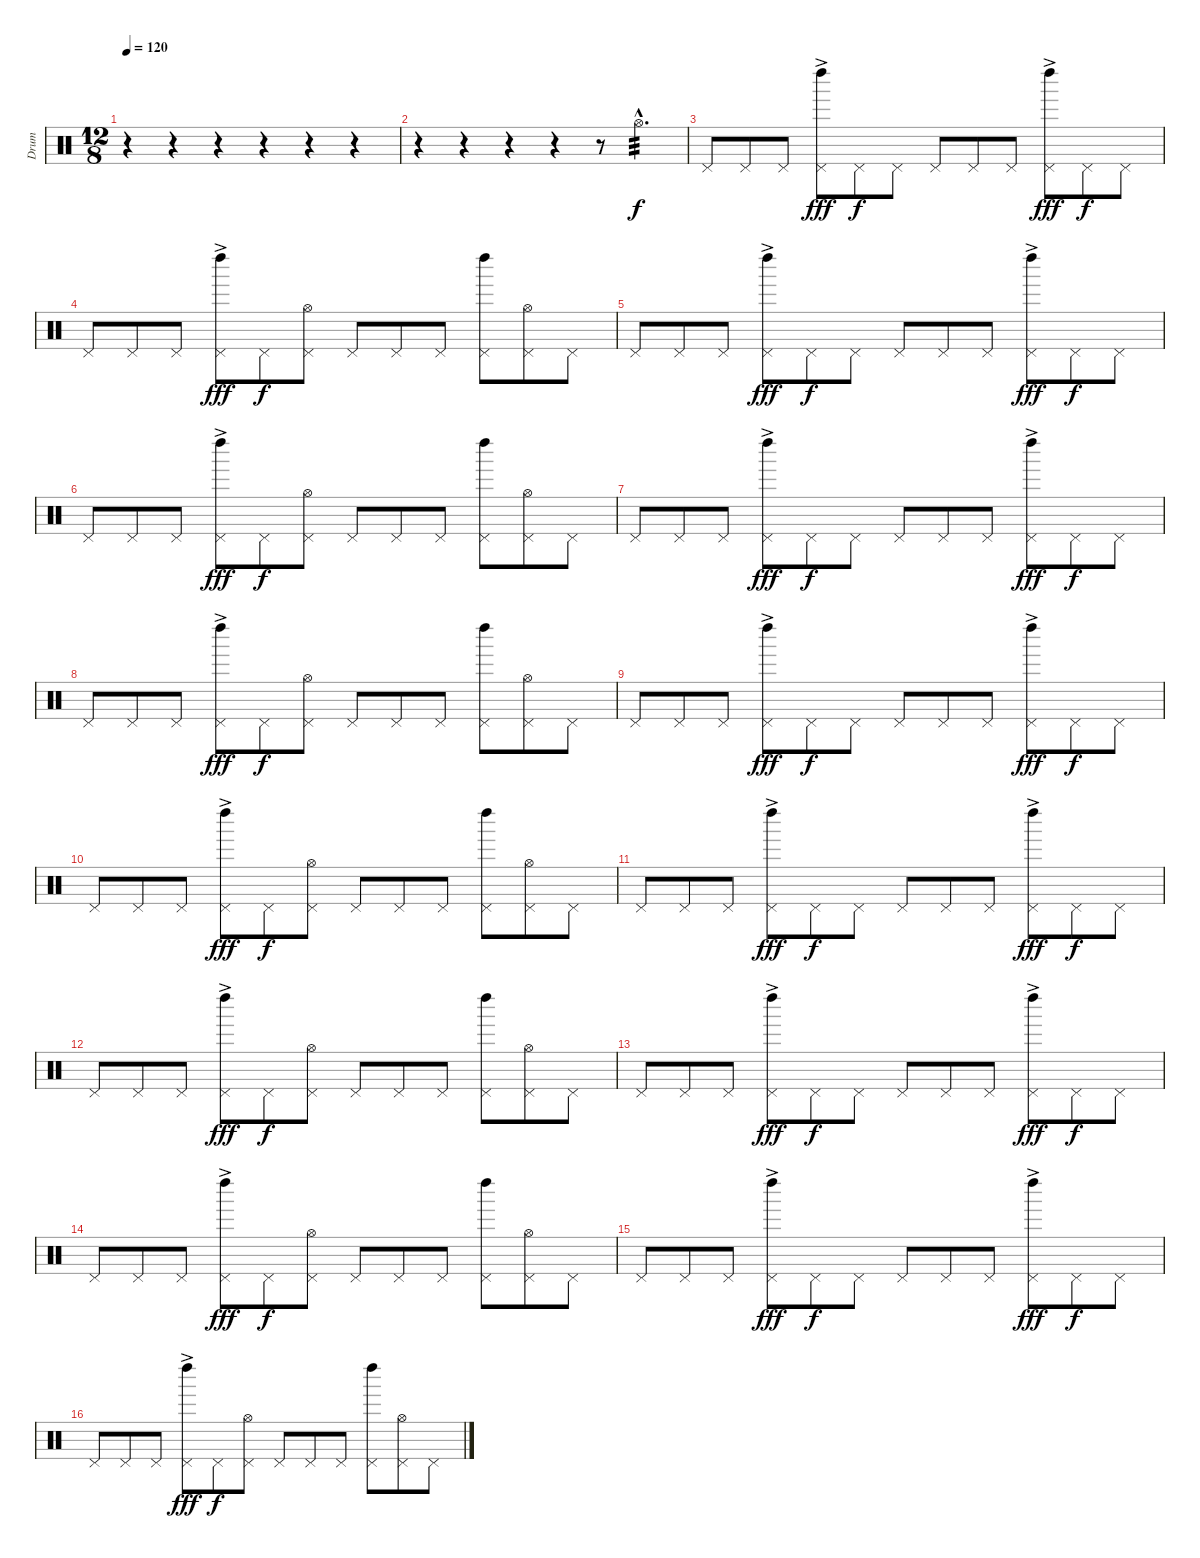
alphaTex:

\track ("Drum" "Drum") {instrument percussion}
\staff {score}
\articulation defaults
\ts (12 8)
\tempo 120
\clef neutral
\ks c
r.4{dy f} r.4 r.4 r.4 r.4 r.4 |
r.4 r.4 r.4 r.4 r.8 "Hi-Hat (open)"{hac}.4{d tp 3} |
"Pedal Hi-Hat (hit)".8 "Pedal Hi-Hat (hit)".8 "Pedal Hi-Hat (hit)".8 ("Pedal Hi-Hat (hit)"{ac} "Left Maraca (hit)"{ac}).8{dy fff} "Pedal Hi-Hat (hit)".8{dy f} "Pedal Hi-Hat (hit)".8 "Pedal Hi-Hat (hit)".8 "Pedal Hi-Hat (hit)".8 "Pedal Hi-Hat (hit)".8 ("Pedal Hi-Hat (hit)"{ac} "Left Maraca (hit)"{ac}).8{dy fff} "Pedal Hi-Hat (hit)".8{dy f} "Pedal Hi-Hat (hit)".8 |
"Pedal Hi-Hat (hit)".8 "Pedal Hi-Hat (hit)".8 "Pedal Hi-Hat (hit)".8 ("Pedal Hi-Hat (hit)"{ac} "Left Maraca (hit)"{ac}).8{dy fff} "Pedal Hi-Hat (hit)".8{dy f} ("Pedal Hi-Hat (hit)" "Hi-Hat (open)").8 "Pedal Hi-Hat (hit)".8 "Pedal Hi-Hat (hit)".8 "Pedal Hi-Hat (hit)".8 ("Pedal Hi-Hat (hit)" "Left Maraca (hit)").8 ("Pedal Hi-Hat (hit)" "Hi-Hat (open)").8 "Pedal Hi-Hat (hit)".8 |
"Pedal Hi-Hat (hit)".8 "Pedal Hi-Hat (hit)".8 "Pedal Hi-Hat (hit)".8 ("Pedal Hi-Hat (hit)"{ac} "Left Maraca (hit)"{ac}).8{dy fff} "Pedal Hi-Hat (hit)".8{dy f} "Pedal Hi-Hat (hit)".8 "Pedal Hi-Hat (hit)".8 "Pedal Hi-Hat (hit)".8 "Pedal Hi-Hat (hit)".8 ("Pedal Hi-Hat (hit)"{ac} "Left Maraca (hit)"{ac}).8{dy fff} "Pedal Hi-Hat (hit)".8{dy f} "Pedal Hi-Hat (hit)".8 |
"Pedal Hi-Hat (hit)".8 "Pedal Hi-Hat (hit)".8 "Pedal Hi-Hat (hit)".8 ("Pedal Hi-Hat (hit)"{ac} "Left Maraca (hit)"{ac}).8{dy fff} "Pedal Hi-Hat (hit)".8{dy f} ("Pedal Hi-Hat (hit)" "Hi-Hat (open)").8 "Pedal Hi-Hat (hit)".8 "Pedal Hi-Hat (hit)".8 "Pedal Hi-Hat (hit)".8 ("Pedal Hi-Hat (hit)" "Left Maraca (hit)").8 ("Pedal Hi-Hat (hit)" "Hi-Hat (open)").8 "Pedal Hi-Hat (hit)".8 |
"Pedal Hi-Hat (hit)".8 "Pedal Hi-Hat (hit)".8 "Pedal Hi-Hat (hit)".8 ("Pedal Hi-Hat (hit)"{ac} "Left Maraca (hit)"{ac}).8{dy fff} "Pedal Hi-Hat (hit)".8{dy f} "Pedal Hi-Hat (hit)".8 "Pedal Hi-Hat (hit)".8 "Pedal Hi-Hat (hit)".8 "Pedal Hi-Hat (hit)".8 ("Pedal Hi-Hat (hit)"{ac} "Left Maraca (hit)"{ac}).8{dy fff} "Pedal Hi-Hat (hit)".8{dy f} "Pedal Hi-Hat (hit)".8 |
"Pedal Hi-Hat (hit)".8 "Pedal Hi-Hat (hit)".8 "Pedal Hi-Hat (hit)".8 ("Pedal Hi-Hat (hit)"{ac} "Left Maraca (hit)"{ac}).8{dy fff} "Pedal Hi-Hat (hit)".8{dy f} ("Pedal Hi-Hat (hit)" "Hi-Hat (open)").8 "Pedal Hi-Hat (hit)".8 "Pedal Hi-Hat (hit)".8 "Pedal Hi-Hat (hit)".8 ("Pedal Hi-Hat (hit)" "Left Maraca (hit)").8 ("Pedal Hi-Hat (hit)" "Hi-Hat (open)").8 "Pedal Hi-Hat (hit)".8 |
"Pedal Hi-Hat (hit)".8 "Pedal Hi-Hat (hit)".8 "Pedal Hi-Hat (hit)".8 ("Pedal Hi-Hat (hit)"{ac} "Left Maraca (hit)"{ac}).8{dy fff} "Pedal Hi-Hat (hit)".8{dy f} "Pedal Hi-Hat (hit)".8 "Pedal Hi-Hat (hit)".8 "Pedal Hi-Hat (hit)".8 "Pedal Hi-Hat (hit)".8 ("Pedal Hi-Hat (hit)"{ac} "Left Maraca (hit)"{ac}).8{dy fff} "Pedal Hi-Hat (hit)".8{dy f} "Pedal Hi-Hat (hit)".8 |
"Pedal Hi-Hat (hit)".8 "Pedal Hi-Hat (hit)".8 "Pedal Hi-Hat (hit)".8 ("Pedal Hi-Hat (hit)"{ac} "Left Maraca (hit)"{ac}).8{dy fff} "Pedal Hi-Hat (hit)".8{dy f} ("Pedal Hi-Hat (hit)" "Hi-Hat (open)").8 "Pedal Hi-Hat (hit)".8 "Pedal Hi-Hat (hit)".8 "Pedal Hi-Hat (hit)".8 ("Pedal Hi-Hat (hit)" "Left Maraca (hit)").8 ("Pedal Hi-Hat (hit)" "Hi-Hat (open)").8 "Pedal Hi-Hat (hit)".8 |
"Pedal Hi-Hat (hit)".8 "Pedal Hi-Hat (hit)".8 "Pedal Hi-Hat (hit)".8 ("Pedal Hi-Hat (hit)"{ac} "Left Maraca (hit)"{ac}).8{dy fff} "Pedal Hi-Hat (hit)".8{dy f} "Pedal Hi-Hat (hit)".8 "Pedal Hi-Hat (hit)".8 "Pedal Hi-Hat (hit)".8 "Pedal Hi-Hat (hit)".8 ("Pedal Hi-Hat (hit)"{ac} "Left Maraca (hit)"{ac}).8{dy fff} "Pedal Hi-Hat (hit)".8{dy f} "Pedal Hi-Hat (hit)".8 |
"Pedal Hi-Hat (hit)".8 "Pedal Hi-Hat (hit)".8 "Pedal Hi-Hat (hit)".8 ("Pedal Hi-Hat (hit)"{ac} "Left Maraca (hit)"{ac}).8{dy fff} "Pedal Hi-Hat (hit)".8{dy f} ("Pedal Hi-Hat (hit)" "Hi-Hat (open)").8 "Pedal Hi-Hat (hit)".8 "Pedal Hi-Hat (hit)".8 "Pedal Hi-Hat (hit)".8 ("Pedal Hi-Hat (hit)" "Left Maraca (hit)").8 ("Pedal Hi-Hat (hit)" "Hi-Hat (open)").8 "Pedal Hi-Hat (hit)".8 |
"Pedal Hi-Hat (hit)".8 "Pedal Hi-Hat (hit)".8 "Pedal Hi-Hat (hit)".8 ("Pedal Hi-Hat (hit)"{ac} "Left Maraca (hit)"{ac}).8{dy fff} "Pedal Hi-Hat (hit)".8{dy f} "Pedal Hi-Hat (hit)".8 "Pedal Hi-Hat (hit)".8 "Pedal Hi-Hat (hit)".8 "Pedal Hi-Hat (hit)".8 ("Pedal Hi-Hat (hit)"{ac} "Left Maraca (hit)"{ac}).8{dy fff} "Pedal Hi-Hat (hit)".8{dy f} "Pedal Hi-Hat (hit)".8 |
"Pedal Hi-Hat (hit)".8 "Pedal Hi-Hat (hit)".8 "Pedal Hi-Hat (hit)".8 ("Pedal Hi-Hat (hit)"{ac} "Left Maraca (hit)"{ac}).8{dy fff} "Pedal Hi-Hat (hit)".8{dy f} ("Pedal Hi-Hat (hit)" "Hi-Hat (open)").8 "Pedal Hi-Hat (hit)".8 "Pedal Hi-Hat (hit)".8 "Pedal Hi-Hat (hit)".8 ("Pedal Hi-Hat (hit)" "Left Maraca (hit)").8 ("Pedal Hi-Hat (hit)" "Hi-Hat (open)").8 "Pedal Hi-Hat (hit)".8 |
"Pedal Hi-Hat (hit)".8 "Pedal Hi-Hat (hit)".8 "Pedal Hi-Hat (hit)".8 ("Pedal Hi-Hat (hit)"{ac} "Left Maraca (hit)"{ac}).8{dy fff} "Pedal Hi-Hat (hit)".8{dy f} "Pedal Hi-Hat (hit)".8 "Pedal Hi-Hat (hit)".8 "Pedal Hi-Hat (hit)".8 "Pedal Hi-Hat (hit)".8 ("Pedal Hi-Hat (hit)"{ac} "Left Maraca (hit)"{ac}).8{dy fff} "Pedal Hi-Hat (hit)".8{dy f} "Pedal Hi-Hat (hit)".8 |
"Pedal Hi-Hat (hit)".8 "Pedal Hi-Hat (hit)".8 "Pedal Hi-Hat (hit)".8 ("Pedal Hi-Hat (hit)"{ac} "Left Maraca (hit)"{ac}).8{dy fff} "Pedal Hi-Hat (hit)".8{dy f} ("Pedal Hi-Hat (hit)" "Hi-Hat (open)").8 "Pedal Hi-Hat (hit)".8 "Pedal Hi-Hat (hit)".8 "Pedal Hi-Hat (hit)".8 ("Pedal Hi-Hat (hit)" "Left Maraca (hit)").8 ("Pedal Hi-Hat (hit)" "Hi-Hat (open)").8 "Pedal Hi-Hat (hit)".8
